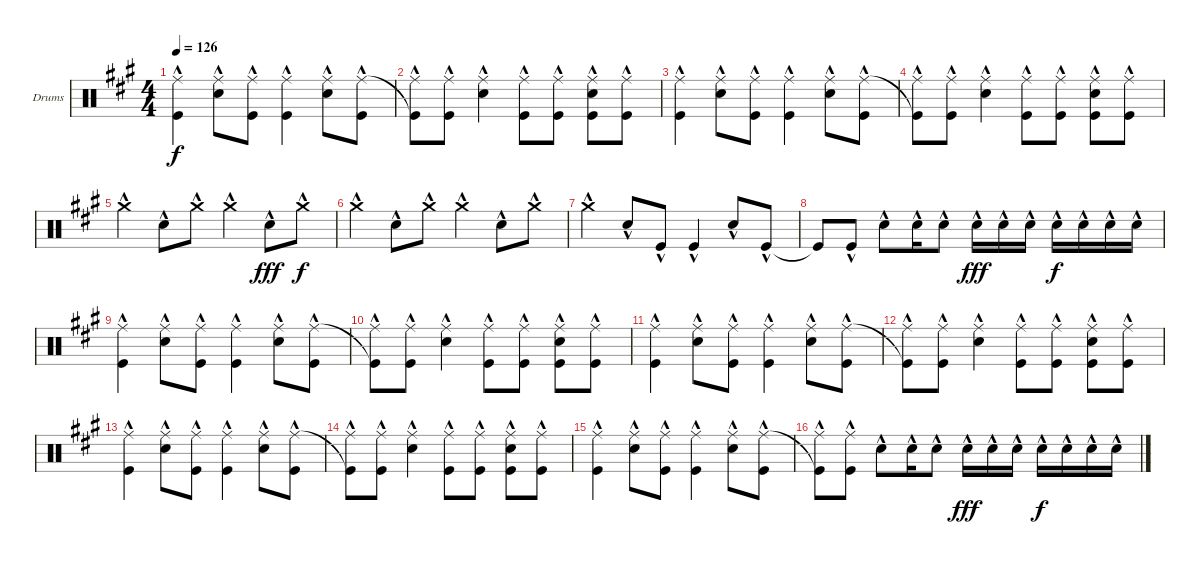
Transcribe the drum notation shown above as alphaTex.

\defaultSystemsLayout 4
\bracketExtendMode groupsimilarinstruments
\firstSystemTrackNameOrientation horizontal
\otherSystemsTrackNameOrientation horizontal
\track ("Drumkit" "Drums") {instrument percussion}
\staff {score}
\articulation defaults
\ts (4 4)
\tempo 126
\clef neutral
\scale
1.05801
\ks a
("Kick (hit)"{hac} "Ride (middle)"{hac}).4{dy f} ("Snare (hit) 2"{hac} "Ride (middle)"{hac}).8 ("Kick (hit)"{hac} "Ride (middle)"{hac}).8 ("Kick (hit)"{hac} "Ride (middle)"{hac}).4 ("Snare (hit) 2"{hac} "Ride (middle)"{hac}).8 ("Kick (hit)"{hac} "Ride (middle)"{hac}).8 |
\scale
0.941992 ("Ride (middle)"{hac} "Kick (hit)"{t}).8 ("Kick (hit)"{hac} "Ride (middle)"{hac}).8 ("Snare (hit) 2"{hac} "Ride (middle)"{hac}).4 ("Ride (middle)"{hac} "Kick (hit)"{hac}).8 ("Kick (hit)"{hac} "Ride (middle)"{hac}).8 ("Kick (hit)"{hac} "Snare (hit) 2"{hac} "Ride (middle)"{hac}).8 ("Kick (hit)"{hac} "Ride (middle)"{hac}).8 |
\scale
1.05801 ("Kick (hit)"{hac} "Ride (middle)"{hac}).4 ("Snare (hit) 2"{hac} "Ride (middle)"{hac}).8 ("Kick (hit)"{hac} "Ride (middle)"{hac}).8 ("Kick (hit)"{hac} "Ride (middle)"{hac}).4 ("Snare (hit) 2"{hac} "Ride (middle)"{hac}).8 ("Kick (hit)"{hac} "Ride (middle)"{hac}).8 |
\scale
0.941992 ("Ride (middle)"{hac} "Kick (hit)"{t}).8 ("Kick (hit)"{hac} "Ride (middle)"{hac}).8 ("Snare (hit) 2"{hac} "Ride (middle)"{hac}).4 ("Ride (middle)"{hac} "Kick (hit)"{hac}).8 ("Kick (hit)"{hac} "Ride (middle)"{hac}).8 ("Kick (hit)"{hac} "Snare (hit) 2"{hac} "Ride (middle)"{hac}).8 ("Kick (hit)"{hac} "Ride (middle)"{hac}).8 |
\scale
1.05801 "Crash medium (hit)"{hac}.4 "Snare (hit) 2"{hac}.8 "Crash medium (hit)"{hac}.8 "Crash medium (hit)"{hac}.4 "Snare (hit) 2"{hac}.8{dy fff} "Crash medium (hit)"{hac}.8{dy f} |
\scale
0.941992 "Crash medium (hit)"{hac}.4 "Snare (hit) 2"{hac}.8 "Crash medium (hit)"{hac}.8 "Crash medium (hit)"{hac}.4 "Snare (hit) 2"{hac}.8 "Crash medium (hit)"{hac}.8 |
\scale
1.05801 "Crash medium (hit)"{hac}.4 "Snare (hit) 2"{hac}.8 "Kick (hit)"{hac}.8 "Kick (hit)"{hac}.4 "Snare (hit) 2"{hac}.8 "Kick (hit)"{hac}.8 |
\scale
0.941992 "Kick (hit)"{t}.8 "Kick (hit)"{hac}.8 "Snare (hit) 2"{hac}.8 "Snare (hit) 2"{hac}.16 "Snare (hit) 2"{hac}.8 "Snare (hit) 2"{hac}.16{dy fff} "Snare (hit) 2"{hac}.16 "Snare (hit) 2"{hac}.16 "Snare (hit) 2"{hac}.16{dy f} "Snare (hit) 2"{hac}.16 "Snare (hit) 2"{hac}.16 "Snare (hit) 2"{hac}.16 |
\scale
1.05801 ("Kick (hit)"{hac} "Ride (middle)"{hac}).4 ("Snare (hit) 2"{hac} "Ride (middle)"{hac}).8 ("Kick (hit)"{hac} "Ride (middle)"{hac}).8 ("Kick (hit)"{hac} "Ride (middle)"{hac}).4 ("Snare (hit) 2"{hac} "Ride (middle)"{hac}).8 ("Kick (hit)"{hac} "Ride (middle)"{hac}).8 |
\scale
0.941992 ("Ride (middle)"{hac} "Kick (hit)"{t}).8 ("Kick (hit)"{hac} "Ride (middle)"{hac}).8 ("Snare (hit) 2"{hac} "Ride (middle)"{hac}).4 ("Ride (middle)"{hac} "Kick (hit)"{hac}).8 ("Kick (hit)"{hac} "Ride (middle)"{hac}).8 ("Kick (hit)"{hac} "Snare (hit) 2"{hac} "Ride (middle)"{hac}).8 ("Kick (hit)"{hac} "Ride (middle)"{hac}).8 |
\scale
1.05801 ("Kick (hit)"{hac} "Ride (middle)"{hac}).4 ("Snare (hit) 2"{hac} "Ride (middle)"{hac}).8 ("Kick (hit)"{hac} "Ride (middle)"{hac}).8 ("Kick (hit)"{hac} "Ride (middle)"{hac}).4 ("Snare (hit) 2"{hac} "Ride (middle)"{hac}).8 ("Kick (hit)"{hac} "Ride (middle)"{hac}).8 |
\scale
0.941992 ("Ride (middle)"{hac} "Kick (hit)"{t}).8 ("Kick (hit)"{hac} "Ride (middle)"{hac}).8 ("Snare (hit) 2"{hac} "Ride (middle)"{hac}).4 ("Ride (middle)"{hac} "Kick (hit)"{hac}).8 ("Kick (hit)"{hac} "Ride (middle)"{hac}).8 ("Kick (hit)"{hac} "Snare (hit) 2"{hac} "Ride (middle)"{hac}).8 ("Kick (hit)"{hac} "Ride (middle)"{hac}).8 |
\scale
1.05801 ("Kick (hit)"{hac} "Ride (middle)"{hac}).4 ("Snare (hit) 2"{hac} "Ride (middle)"{hac}).8 ("Kick (hit)"{hac} "Ride (middle)"{hac}).8 ("Kick (hit)"{hac} "Ride (middle)"{hac}).4 ("Snare (hit) 2"{hac} "Ride (middle)"{hac}).8 ("Kick (hit)"{hac} "Ride (middle)"{hac}).8 |
\scale
0.941992 ("Ride (middle)"{hac} "Kick (hit)"{t}).8 ("Kick (hit)"{hac} "Ride (middle)"{hac}).8 ("Snare (hit) 2"{hac} "Ride (middle)"{hac}).4 ("Ride (middle)"{hac} "Kick (hit)"{hac}).8 ("Kick (hit)"{hac} "Ride (middle)"{hac}).8 ("Kick (hit)"{hac} "Snare (hit) 2"{hac} "Ride (middle)"{hac}).8 ("Kick (hit)"{hac} "Ride (middle)"{hac}).8 |
\scale
1.05801 ("Kick (hit)"{hac} "Ride (middle)"{hac}).4 ("Snare (hit) 2"{hac} "Ride (middle)"{hac}).8 ("Kick (hit)"{hac} "Ride (middle)"{hac}).8 ("Kick (hit)"{hac} "Ride (middle)"{hac}).4 ("Snare (hit) 2"{hac} "Ride (middle)"{hac}).8 ("Kick (hit)"{hac} "Ride (middle)"{hac}).8 |
\scale
0.941992 ("Ride (middle)"{hac} "Kick (hit)"{t}).8 ("Kick (hit)"{hac} "Ride (middle)"{hac}).8 "Snare (hit) 2"{hac}.8 "Snare (hit) 2"{hac}.16 "Snare (hit) 2"{hac}.8 "Snare (hit) 2"{hac}.16{dy fff} "Snare (hit) 2"{hac}.16 "Snare (hit) 2"{hac}.16 "Snare (hit) 2"{hac}.16{dy f} "Snare (hit) 2"{hac}.16 "Snare (hit) 2"{hac}.16 "Snare (hit) 2"{hac}.16
